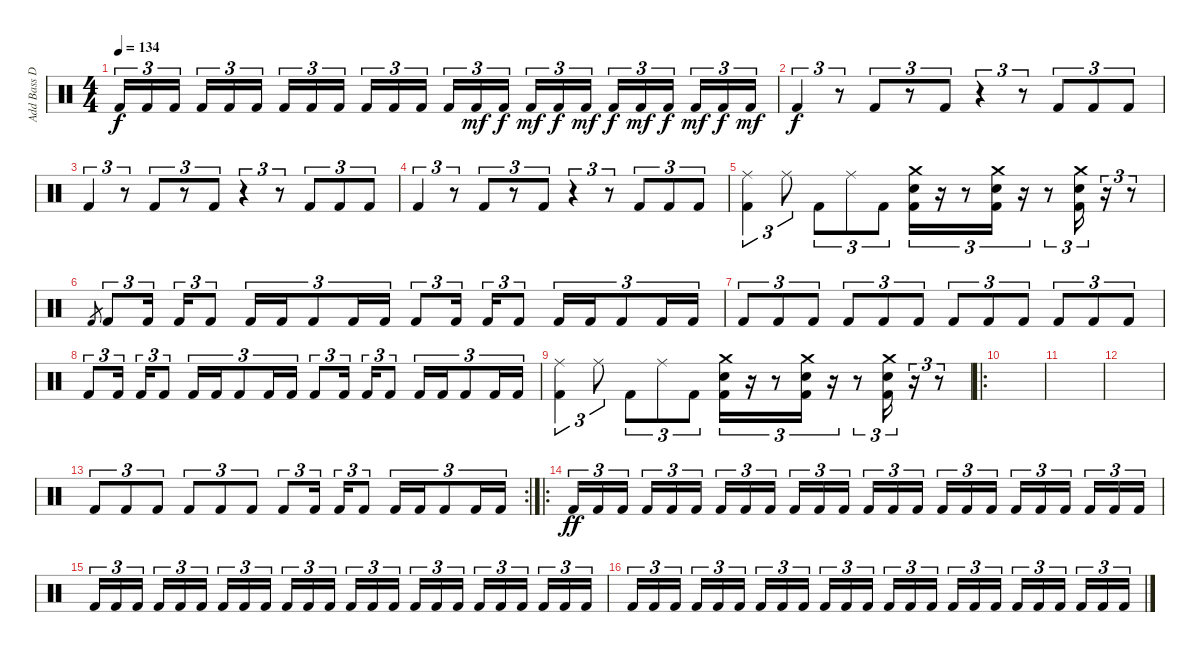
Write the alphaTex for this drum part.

\track ("Add Bass Drum" "Add Bass D") {instrument percussion}
\staff {score}
\articulation defaults
\ts (4 4)
\tempo 134
\clef neutral
\ks c "Kick (hit) 2".16{tu (3 2) dy f} "Kick (hit) 2".16{tu (3 2)} "Kick (hit) 2".16{tu (3 2)} "Kick (hit) 2".16{tu (3 2)} "Kick (hit) 2".16{tu (3 2)} "Kick (hit) 2".16{tu (3 2)} "Kick (hit) 2".16{tu (3 2)} "Kick (hit) 2".16{tu (3 2)} "Kick (hit) 2".16{tu (3 2)} "Kick (hit) 2".16{tu (3 2)} "Kick (hit) 2".16{tu (3 2)} "Kick (hit) 2".16{tu (3 2)} "Kick (hit) 2".16{tu (3 2)} "Kick (hit) 2".16{tu (3 2) dy mf} "Kick (hit) 2".16{tu (3 2) dy f} "Kick (hit) 2".16{tu (3 2) dy mf} "Kick (hit) 2".16{tu (3 2) dy f} "Kick (hit) 2".16{tu (3 2) dy mf} "Kick (hit) 2".16{tu (3 2) dy f} "Kick (hit) 2".16{tu (3 2) dy mf} "Kick (hit) 2".16{tu (3 2) dy f} "Kick (hit) 2".16{tu (3 2) dy mf} "Kick (hit) 2".16{tu (3 2) dy f} "Kick (hit) 2".16{tu (3 2) dy mf}
|
"Kick (hit) 2".4{tu (3 2) dy f} r.8{tu (3 2)} "Kick (hit) 2".8{tu (3 2)} r.8{tu (3 2)} "Kick (hit) 2".8{tu (3 2)} r.4{tu (3 2)} r.8{tu (3 2)} "Kick (hit) 2".8{tu (3 2)} "Kick (hit) 2".8{tu (3 2)} "Kick (hit) 2".8{tu (3 2)} |
"Kick (hit) 2".4{tu (3 2)} r.8{tu (3 2)} "Kick (hit) 2".8{tu (3 2)} r.8{tu (3 2)} "Kick (hit) 2".8{tu (3 2)} r.4{tu (3 2)} r.8{tu (3 2)} "Kick (hit) 2".8{tu (3 2)} "Kick (hit) 2".8{tu (3 2)} "Kick (hit) 2".8{tu (3 2)} |
"Kick (hit) 2".4{tu (3 2)} r.8{tu (3 2)} "Kick (hit) 2".8{tu (3 2)} r.8{tu (3 2)} "Kick (hit) 2".8{tu (3 2)} r.4{tu (3 2)} r.8{tu (3 2)} "Kick (hit) 2".8{tu (3 2)} "Kick (hit) 2".8{tu (3 2)} "Kick (hit) 2".8{tu (3 2)} |
("Kick (hit) 2" "Ride (middle)").4{tu (3 2)} "Ride (middle)".8{tu (3 2)} "Kick (hit) 2".8{tu (3 2)} "Ride (middle)".8{tu (3 2)} "Kick (hit) 2".8{tu (3 2)} ("Electric Snare (hit)" "Crash medium (hit)" "Kick (hit) 2").16{tu (3 2)} r.16{tu (3 2)} r.8{tu (3 2)} ("Electric Snare (hit)" "Crash medium (hit)" "Kick (hit) 2").16{tu (3 2)} r.16{tu (3 2)} r.8{tu (3 2)} ("Electric Snare (hit)" "Crash medium (hit)" "Kick (hit) 2").16{tu (3 2)} r.16{tu (3 2)} r.8{tu (3 2)} |
"Kick (hit) 2".8{gr} "Kick (hit) 2".8{tu (3 2)} "Kick (hit) 2".16{tu (3 2)} "Kick (hit) 2".16{tu (3 2)} "Kick (hit) 2".8{tu (3 2)} "Kick (hit) 2".16{tu (3 2)} "Kick (hit) 2".16{tu (3 2)} "Kick (hit) 2".8{tu (3 2)} "Kick (hit) 2".16{tu (3 2)} "Kick (hit) 2".16{tu (3 2)} "Kick (hit) 2".8{tu (3 2)} "Kick (hit) 2".16{tu (3 2)} "Kick (hit) 2".16{tu (3 2)} "Kick (hit) 2".8{tu (3 2)} "Kick (hit) 2".16{tu (3 2)} "Kick (hit) 2".16{tu (3 2)} "Kick (hit) 2".8{tu (3 2)} "Kick (hit) 2".16{tu (3 2)} "Kick (hit) 2".16{tu (3 2)} |
"Kick (hit) 2".8{tu (3 2)} "Kick (hit) 2".8{tu (3 2)} "Kick (hit) 2".8{tu (3 2)} "Kick (hit) 2".8{tu (3 2)} "Kick (hit) 2".8{tu (3 2)} "Kick (hit) 2".8{tu (3 2)} "Kick (hit) 2".8{tu (3 2)} "Kick (hit) 2".8{tu (3 2)} "Kick (hit) 2".8{tu (3 2)} "Kick (hit) 2".8{tu (3 2)} "Kick (hit) 2".8{tu (3 2)} "Kick (hit) 2".8{tu (3 2)} |
"Kick (hit) 2".8{tu (3 2)} "Kick (hit) 2".16{tu (3 2)} "Kick (hit) 2".16{tu (3 2)} "Kick (hit) 2".8{tu (3 2)} "Kick (hit) 2".16{tu (3 2)} "Kick (hit) 2".16{tu (3 2)} "Kick (hit) 2".8{tu (3 2)} "Kick (hit) 2".16{tu (3 2)} "Kick (hit) 2".16{tu (3 2)} "Kick (hit) 2".8{tu (3 2)} "Kick (hit) 2".16{tu (3 2)} "Kick (hit) 2".16{tu (3 2)} "Kick (hit) 2".8{tu (3 2)} "Kick (hit) 2".16{tu (3 2)} "Kick (hit) 2".16{tu (3 2)} "Kick (hit) 2".8{tu (3 2)} "Kick (hit) 2".16{tu (3 2)} "Kick (hit) 2".16{tu (3 2)} |
("Kick (hit) 2" "Ride (middle)").4{tu (3 2)} "Ride (middle)".8{tu (3 2)} "Kick (hit) 2".8{tu (3 2)} "Ride (middle)".8{tu (3 2)} "Kick (hit) 2".8{tu (3 2)} ("Electric Snare (hit)" "Crash medium (hit)" "Kick (hit) 2").16{tu (3 2)} r.16{tu (3 2)} r.8{tu (3 2)} ("Electric Snare (hit)" "Crash medium (hit)" "Kick (hit) 2").16{tu (3 2)} r.16{tu (3 2)} r.8{tu (3 2)} ("Electric Snare (hit)" "Crash medium (hit)" "Kick (hit) 2").16{tu (3 2)} r.16{tu (3 2)} r.8{tu (3 2)} |
\ro
|
|
|
\rc 2 "Kick (hit) 2".8{tu (3 2)} "Kick (hit) 2".8{tu (3 2)} "Kick (hit) 2".8{tu (3 2)} "Kick (hit) 2".8{tu (3 2)} "Kick (hit) 2".8{tu (3 2)} "Kick (hit) 2".8{tu (3 2)} "Kick (hit) 2".8{tu (3 2)} "Kick (hit) 2".16{tu (3 2)} "Kick (hit) 2".16{tu (3 2)} "Kick (hit) 2".8{tu (3 2)} "Kick (hit) 2".16{tu (3 2)} "Kick (hit) 2".16{tu (3 2)} "Kick (hit) 2".8{tu (3 2)} "Kick (hit) 2".16{tu (3 2)} "Kick (hit) 2".16{tu (3 2)}
|
\ro "Kick (hit) 2".16{tu (3 2) dy ff} "Kick (hit) 2".16{tu (3 2)} "Kick (hit) 2".16{tu (3 2)} "Kick (hit) 2".16{tu (3 2)} "Kick (hit) 2".16{tu (3 2)} "Kick (hit) 2".16{tu (3 2)} "Kick (hit) 2".16{tu (3 2)} "Kick (hit) 2".16{tu (3 2)} "Kick (hit) 2".16{tu (3 2)} "Kick (hit) 2".16{tu (3 2)} "Kick (hit) 2".16{tu (3 2)} "Kick (hit) 2".16{tu (3 2)} "Kick (hit) 2".16{tu (3 2)} "Kick (hit) 2".16{tu (3 2)} "Kick (hit) 2".16{tu (3 2)} "Kick (hit) 2".16{tu (3 2)} "Kick (hit) 2".16{tu (3 2)} "Kick (hit) 2".16{tu (3 2)} "Kick (hit) 2".16{tu (3 2)} "Kick (hit) 2".16{tu (3 2)} "Kick (hit) 2".16{tu (3 2)} "Kick (hit) 2".16{tu (3 2)} "Kick (hit) 2".16{tu (3 2)} "Kick (hit) 2".16{tu (3 2)}
|
"Kick (hit) 2".16{tu (3 2)} "Kick (hit) 2".16{tu (3 2)} "Kick (hit) 2".16{tu (3 2)} "Kick (hit) 2".16{tu (3 2)} "Kick (hit) 2".16{tu (3 2)} "Kick (hit) 2".16{tu (3 2)} "Kick (hit) 2".16{tu (3 2)} "Kick (hit) 2".16{tu (3 2)} "Kick (hit) 2".16{tu (3 2)} "Kick (hit) 2".16{tu (3 2)} "Kick (hit) 2".16{tu (3 2)} "Kick (hit) 2".16{tu (3 2)} "Kick (hit) 2".16{tu (3 2)} "Kick (hit) 2".16{tu (3 2)} "Kick (hit) 2".16{tu (3 2)} "Kick (hit) 2".16{tu (3 2)} "Kick (hit) 2".16{tu (3 2)} "Kick (hit) 2".16{tu (3 2)} "Kick (hit) 2".16{tu (3 2)} "Kick (hit) 2".16{tu (3 2)} "Kick (hit) 2".16{tu (3 2)} "Kick (hit) 2".16{tu (3 2)} "Kick (hit) 2".16{tu (3 2)} "Kick (hit) 2".16{tu (3 2)} |
"Kick (hit) 2".16{tu (3 2)} "Kick (hit) 2".16{tu (3 2)} "Kick (hit) 2".16{tu (3 2)} "Kick (hit) 2".16{tu (3 2)} "Kick (hit) 2".16{tu (3 2)} "Kick (hit) 2".16{tu (3 2)} "Kick (hit) 2".16{tu (3 2)} "Kick (hit) 2".16{tu (3 2)} "Kick (hit) 2".16{tu (3 2)} "Kick (hit) 2".16{tu (3 2)} "Kick (hit) 2".16{tu (3 2)} "Kick (hit) 2".16{tu (3 2)} "Kick (hit) 2".16{tu (3 2)} "Kick (hit) 2".16{tu (3 2)} "Kick (hit) 2".16{tu (3 2)} "Kick (hit) 2".16{tu (3 2)} "Kick (hit) 2".16{tu (3 2)} "Kick (hit) 2".16{tu (3 2)} "Kick (hit) 2".16{tu (3 2)} "Kick (hit) 2".16{tu (3 2)} "Kick (hit) 2".16{tu (3 2)} "Kick (hit) 2".16{tu (3 2)} "Kick (hit) 2".16{tu (3 2)} "Kick (hit) 2".16{tu (3 2)}
